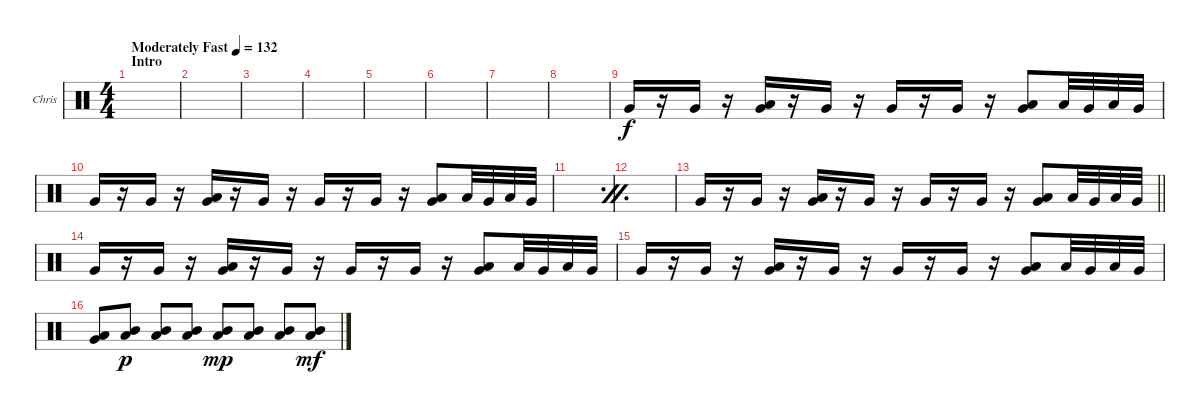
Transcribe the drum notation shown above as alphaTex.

\bracketExtendMode groupsimilarinstruments
\firstSystemTrackNameOrientation horizontal
\otherSystemsTrackNameOrientation horizontal
\track ("Chris Fehn" "Chris") {instrument percussion}
\staff {score}
\articulation defaults
\ts (4 4)
\beaming (8 2 2 2 2)
\section ("" "Intro")
\tempo (132 "Moderately Fast")
\clef neutral
\ks c
|
|
|
|
|
|
|
|
"Very Low Tom (hit)".16 r.16 "Very Low Tom (hit)".16 r.16 ("Very Low Tom (hit)" "Low Tom (hit)").16 r.16 "Very Low Tom (hit)".16 r.16 "Very Low Tom (hit)".16 r.16 "Very Low Tom (hit)".16 r.16 ("Very Low Tom (hit)" "Low Tom (hit)").8 "Low Tom (hit)".32 "Very Low Tom (hit)".32 "Low Tom (hit)".32 "Very Low Tom (hit)".32 |
"Very Low Tom (hit)".16 r.16 "Very Low Tom (hit)".16 r.16 ("Very Low Tom (hit)" "Low Tom (hit)").16 r.16 "Very Low Tom (hit)".16 r.16 "Very Low Tom (hit)".16 r.16 "Very Low Tom (hit)".16 r.16 ("Very Low Tom (hit)" "Low Tom (hit)").8 "Low Tom (hit)".32 "Very Low Tom (hit)".32 "Low Tom (hit)".32 "Very Low Tom (hit)".32 |
\simile firstofdouble
|
\simile secondofdouble
|
\simile none
\barLineRight lightlight "Very Low Tom (hit)".16
r.16 "Very Low Tom (hit)".16 r.16 ("Very Low Tom (hit)" "Low Tom (hit)").16 r.16 "Very Low Tom (hit)".16 r.16 "Very Low Tom (hit)".16 r.16 "Very Low Tom (hit)".16 r.16 ("Very Low Tom (hit)" "Low Tom (hit)").8 "Low Tom (hit)".32 "Very Low Tom (hit)".32 "Low Tom (hit)".32 "Very Low Tom (hit)".32 |
"Very Low Tom (hit)".16 r.16 "Very Low Tom (hit)".16 r.16 ("Very Low Tom (hit)" "Low Tom (hit)").16 r.16 "Very Low Tom (hit)".16 r.16 "Very Low Tom (hit)".16 r.16 "Very Low Tom (hit)".16 r.16 ("Very Low Tom (hit)" "Low Tom (hit)").8 "Low Tom (hit)".32 "Very Low Tom (hit)".32 "Low Tom (hit)".32 "Very Low Tom (hit)".32 |
"Very Low Tom (hit)".16 r.16 "Very Low Tom (hit)".16 r.16 ("Very Low Tom (hit)" "Low Tom (hit)").16 r.16 "Very Low Tom (hit)".16 r.16 "Very Low Tom (hit)".16 r.16 "Very Low Tom (hit)".16 r.16 ("Very Low Tom (hit)" "Low Tom (hit)").8 "Low Tom (hit)".32 "Very Low Tom (hit)".32 "Low Tom (hit)".32 "Very Low Tom (hit)".32 |
("Very Low Tom (hit)" "Low Tom (hit)").8 ("Low Tom (hit)" "Mid Tom (hit)").8{dy p} ("Low Tom (hit)" "Mid Tom (hit)").8 ("Low Tom (hit)" "Mid Tom (hit)").8 ("Low Tom (hit)" "Mid Tom (hit)").8{dy mp} ("Low Tom (hit)" "Mid Tom (hit)").8 ("Low Tom (hit)" "Mid Tom (hit)").8 ("Low Tom (hit)" "Mid Tom (hit)").8{dy mf}
